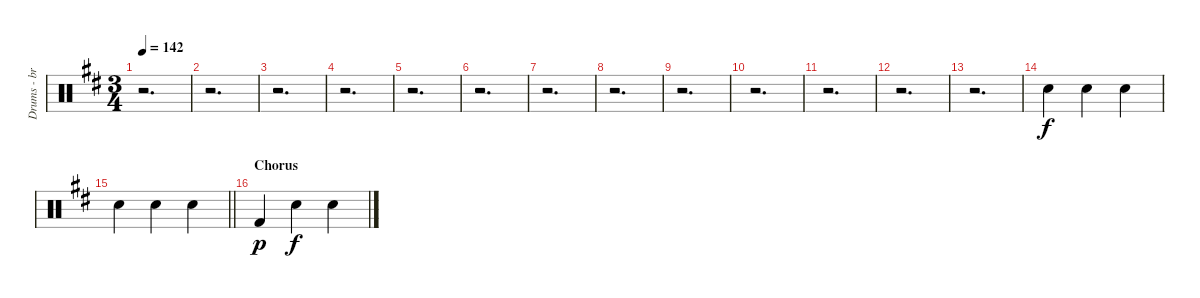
\track ("Drums - brush set" "Drums - br") {instrument percussion}
\staff {score}
\articulation defaults
\ts (3 4)
\tempo 142
\clef neutral
\ks d
r.2{d dy f} |
r.2{d} |
r.2{d} |
r.2{d} |
r.2{d} |
r.2{d} |
r.2{d} |
r.2{d} |
r.2{d} |
r.2{d} |
r.2{d} |
r.2{d} |
r.2{d} |
"Snare (hit) 2".4 "Snare (hit) 2".4 "Snare (hit) 2".4 |
\barLineRight lightlight "Snare (hit) 2".4 "Snare (hit) 2".4 "Snare (hit) 2".4
|
\section ("" "Chorus")
"Kick (hit) 2".4{dy p} "Snare (hit) 2".4{dy f} "Snare (hit) 2".4
